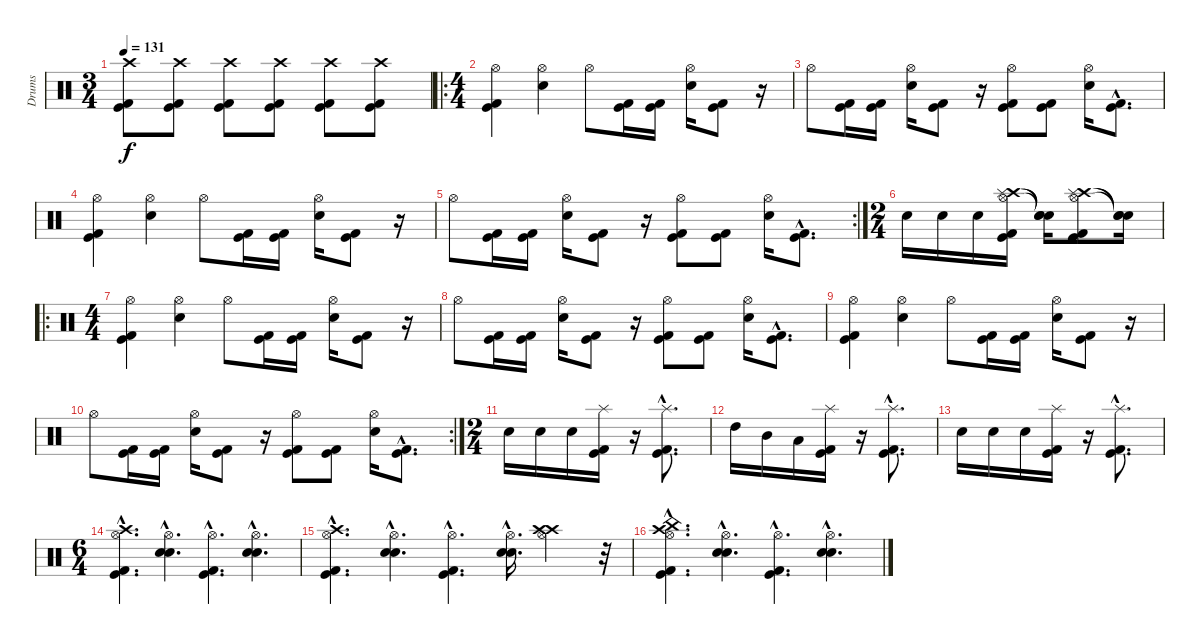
\track ("Drums" "Drums") {instrument percussion}
\staff {score}
\articulation defaults
\ts (3 4)
\tempo 131
\clef neutral
\ks c
("Crash high (hit)" "Kick (hit) 2" "Kick (hit)").8{dy f} ("Crash high (hit)" "Kick (hit)" "Kick (hit) 2").8 ("Crash high (hit)" "Kick (hit)" "Kick (hit) 2").8 ("Crash high (hit)" "Kick (hit)" "Kick (hit) 2").8 ("Crash high (hit)" "Kick (hit) 2" "Kick (hit)").8 ("Crash high (hit)" "Kick (hit) 2" "Kick (hit)").8 |
\ro
\ts (4 4)
("Hi-Hat (open)" "Kick (hit) 2" "Kick (hit)").4 ("Hi-Hat (open)" "Snare (hit) 2").4 "Hi-Hat (open)".8 ("Kick (hit) 2" "Kick (hit)").16 ("Kick (hit)" "Kick (hit) 2").16 ("Hi-Hat (open)" "Snare (hit) 2").16 ("Kick (hit)" "Kick (hit) 2").8 r.16 |
"Hi-Hat (open)".8 ("Kick (hit)" "Kick (hit) 2").16 ("Kick (hit) 2" "Kick (hit)").16 ("Hi-Hat (open)" "Snare (hit) 2").16 ("Kick (hit) 2" "Kick (hit)").8 r.16 ("Hi-Hat (open)" "Kick (hit) 2" "Kick (hit)").8 ("Kick (hit) 2" "Kick (hit)").8 ("Hi-Hat (open)" "Snare (hit) 2").16 ("Kick (hit) 2"{hac} "Kick (hit)"{hac}).8{d} |
("Hi-Hat (open)" "Kick (hit) 2" "Kick (hit)").4 ("Hi-Hat (open)" "Snare (hit) 2").4 "Hi-Hat (open)".8 ("Kick (hit) 2" "Kick (hit)").16 ("Kick (hit)" "Kick (hit) 2").16 ("Hi-Hat (open)" "Snare (hit) 2").16 ("Kick (hit)" "Kick (hit) 2").8 r.16 |
\rc 2 "Hi-Hat (open)".8
("Kick (hit)" "Kick (hit) 2").16 ("Kick (hit) 2" "Kick (hit)").16 ("Hi-Hat (open)" "Snare (hit) 2").16 ("Kick (hit) 2" "Kick (hit)").8 r.16 ("Hi-Hat (open)" "Kick (hit) 2" "Kick (hit)").8 ("Kick (hit) 2" "Kick (hit)").8 ("Hi-Hat (open)" "Snare (hit) 2").16 ("Kick (hit) 2"{hac} "Kick (hit)"{hac}).8{d} |
\ts (2 4)
"Snare (hit) 2".16 "Snare (hit) 2".16 "Snare (hit) 2".16 ("Crash high (hit)" "Splash (hit)" "Hi-Hat (open)" "Kick (hit)" "Kick (hit) 2").16 ("Snare (hit)"{t} "Snare (hit)"{t} "Snare (hit)"{t}).16 ("Crash high (hit)" "Splash (hit)" "Hi-Hat (open)" "Kick (hit)" "Kick (hit) 2").8 ("Snare (hit)"{t} "Snare (hit)"{t} "Snare (hit)"{t}).16 |
\ro
\ts (4 4)
("Hi-Hat (open)" "Kick (hit) 2" "Kick (hit)").4 ("Hi-Hat (open)" "Snare (hit) 2").4 "Hi-Hat (open)".8 ("Kick (hit) 2" "Kick (hit)").16 ("Kick (hit)" "Kick (hit) 2").16 ("Hi-Hat (open)" "Snare (hit) 2").16 ("Kick (hit)" "Kick (hit) 2").8 r.16 |
"Hi-Hat (open)".8 ("Kick (hit)" "Kick (hit) 2").16 ("Kick (hit) 2" "Kick (hit)").16 ("Hi-Hat (open)" "Snare (hit) 2").16 ("Kick (hit) 2" "Kick (hit)").8 r.16 ("Hi-Hat (open)" "Kick (hit) 2" "Kick (hit)").8 ("Kick (hit) 2" "Kick (hit)").8 ("Hi-Hat (open)" "Snare (hit) 2").16 ("Kick (hit) 2"{hac} "Kick (hit)"{hac}).8{d} |
("Hi-Hat (open)" "Kick (hit) 2" "Kick (hit)").4 ("Hi-Hat (open)" "Snare (hit) 2").4 "Hi-Hat (open)".8 ("Kick (hit) 2" "Kick (hit)").16 ("Kick (hit)" "Kick (hit) 2").16 ("Hi-Hat (open)" "Snare (hit) 2").16 ("Kick (hit)" "Kick (hit) 2").8 r.16 |
\rc 2 "Hi-Hat (open)".8
("Kick (hit)" "Kick (hit) 2").16 ("Kick (hit) 2" "Kick (hit)").16 ("Hi-Hat (open)" "Snare (hit) 2").16 ("Kick (hit) 2" "Kick (hit)").8 r.16 ("Hi-Hat (open)" "Kick (hit) 2" "Kick (hit)").8 ("Kick (hit) 2" "Kick (hit)").8 ("Hi-Hat (open)" "Snare (hit) 2").16 ("Kick (hit) 2"{hac} "Kick (hit)"{hac}).8{d} |
\ts (2 4)
"Snare (hit) 2".16 "Snare (hit) 2".16 "Snare (hit) 2".16 ("Splash (hit)" "Kick (hit)" "Kick (hit) 2").16 r.16 ("Splash (hit)"{hac} "Kick (hit)"{hac} "Kick (hit) 2"{hac}).8{d} |
"High Tom (hit)".16 "Mid Tom (hit)".16 "Low Tom (hit)".16 ("Splash (hit)" "Kick (hit)" "Kick (hit) 2").16 r.16 ("Splash (hit)"{hac} "Kick (hit)"{hac} "Kick (hit) 2"{hac}).8{d} |
"Snare (hit) 2".16 "Snare (hit) 2".16 "Snare (hit) 2".16 ("Splash (hit)" "Kick (hit)" "Kick (hit) 2").16 r.16 ("Splash (hit)"{hac} "Kick (hit)"{hac} "Kick (hit) 2"{hac}).8{d} |
\ts (6 4)
("Hi-Hat (open)"{hac} "Crash high (hit)"{hac} "Kick (hit) 2"{hac} "Kick (hit)"{hac}).4{d} ("Hi-Hat (open)"{hac} "Snare (hit) 2"{hac} "Electric Snare (hit)"{hac}).4{d} ("Hi-Hat (open)"{hac} "Kick (hit)"{hac} "Kick (hit) 2"{hac}).4{d} ("Hi-Hat (open)"{hac} "Snare (hit) 2"{hac} "Electric Snare (hit)"{hac}).4{d} |
("Hi-Hat (open)"{hac} "Crash high (hit)"{hac} "Kick (hit) 2"{hac} "Kick (hit)"{hac}).4{d} ("Hi-Hat (open)"{hac} "Snare (hit) 2"{hac} "Electric Snare (hit)"{hac}).4{d} ("Hi-Hat (open)"{hac} "Kick (hit)"{hac} "Kick (hit) 2"{hac}).4{d} ("Hi-Hat (open)"{hac} "Snare (hit) 2"{hac} "Electric Snare (hit)"{hac}).16{d} ("Hi-Hat (open)" "Crash high (hit)" "Crash high (hit)").4 r.32 |
("China (hit)"{hac} "Hi-Hat (open)"{hac} "Crash high (hit)"{hac} "Kick (hit) 2"{hac} "Kick (hit)"{hac}).4{d} ("Hi-Hat (open)"{hac} "Snare (hit) 2"{hac} "Electric Snare (hit)"{hac}).4{d} ("Hi-Hat (open)"{hac} "Kick (hit)"{hac} "Kick (hit) 2"{hac}).4{d} ("Hi-Hat (open)"{hac} "Snare (hit) 2"{hac} "Electric Snare (hit)"{hac}).4{d}
